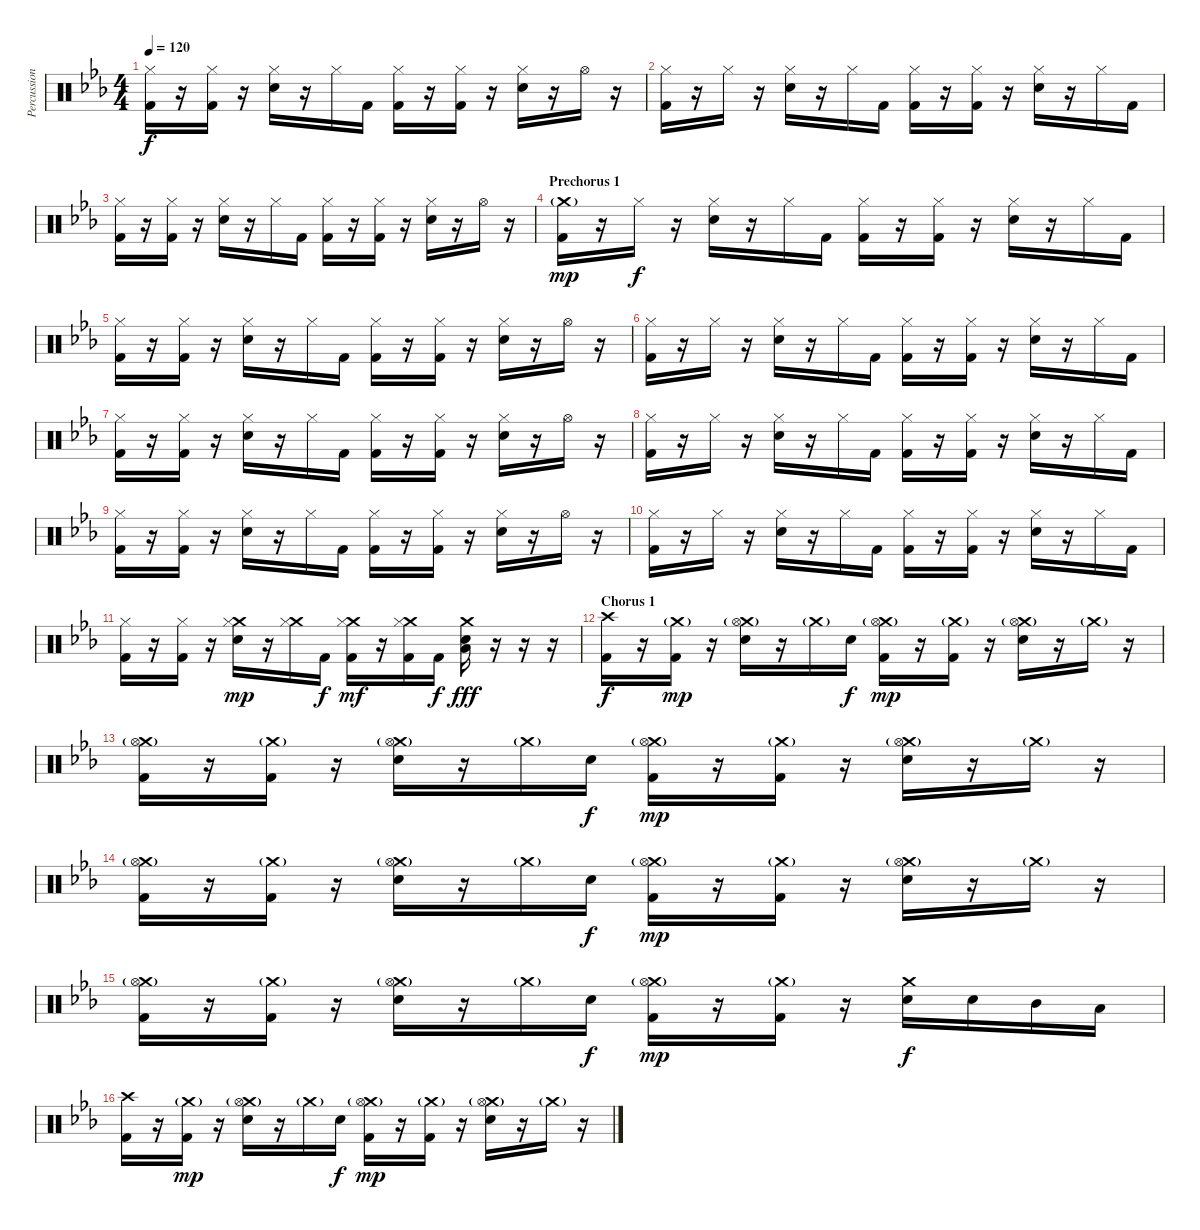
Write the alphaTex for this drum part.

\track ("Percussion" "Percussion") {instrument percussion}
\staff {score}
\articulation defaults
\ts (4 4)
\tempo 120
\clef neutral
\ks eb
("Hi-Hat (closed)" "Kick (hit) 2").16{dy f} r.16 ("Hi-Hat (closed)" "Kick (hit) 2").16 r.16 ("Hi-Hat (closed)" "Electric Snare (hit)").16 r.16 "Hi-Hat (closed)".16 "Kick (hit) 2".16 ("Hi-Hat (closed)" "Kick (hit) 2").16 r.16 ("Hi-Hat (closed)" "Kick (hit) 2").16 r.16 ("Hi-Hat (closed)" "Electric Snare (hit)").16 r.16 "Hi-Hat (open)".16 r.16 |
("Hi-Hat (closed)" "Kick (hit) 2").16 r.16 "Hi-Hat (closed)".16 r.16 ("Hi-Hat (closed)" "Electric Snare (hit)").16 r.16 "Hi-Hat (closed)".16 "Kick (hit) 2".16 ("Hi-Hat (closed)" "Kick (hit) 2").16 r.16 ("Hi-Hat (closed)" "Kick (hit) 2").16 r.16 ("Hi-Hat (closed)" "Electric Snare (hit)").16 r.16 "Hi-Hat (closed)".16 "Kick (hit) 2".16 |
("Hi-Hat (closed)" "Kick (hit) 2").16 r.16 ("Hi-Hat (closed)" "Kick (hit) 2").16 r.16 ("Hi-Hat (closed)" "Electric Snare (hit)").16 r.16 "Hi-Hat (closed)".16 "Kick (hit) 2".16 ("Hi-Hat (closed)" "Kick (hit) 2").16 r.16 ("Hi-Hat (closed)" "Kick (hit) 2").16 r.16 ("Hi-Hat (closed)" "Electric Snare (hit)").16 r.16 "Hi-Hat (open)".16 r.16 |
\section ("" "Prechorus 1")
("Crash medium (hit)"{g} "Kick (hit) 2").16{dy mp} r.16 "Hi-Hat (closed)".16{dy f} r.16 ("Hi-Hat (closed)" "Electric Snare (hit)").16 r.16 "Hi-Hat (closed)".16 "Kick (hit) 2".16 ("Hi-Hat (closed)" "Kick (hit) 2").16 r.16 ("Hi-Hat (closed)" "Kick (hit) 2").16 r.16 ("Hi-Hat (closed)" "Electric Snare (hit)").16 r.16 "Hi-Hat (closed)".16 "Kick (hit) 2".16 |
("Hi-Hat (closed)" "Kick (hit) 2").16 r.16 ("Hi-Hat (closed)" "Kick (hit) 2").16 r.16 ("Hi-Hat (closed)" "Electric Snare (hit)").16 r.16 "Hi-Hat (closed)".16 "Kick (hit) 2".16 ("Hi-Hat (closed)" "Kick (hit) 2").16 r.16 ("Hi-Hat (closed)" "Kick (hit) 2").16 r.16 ("Hi-Hat (closed)" "Electric Snare (hit)").16 r.16 "Hi-Hat (open)".16 r.16 |
("Hi-Hat (closed)" "Kick (hit) 2").16 r.16 "Hi-Hat (closed)".16 r.16 ("Hi-Hat (closed)" "Electric Snare (hit)").16 r.16 "Hi-Hat (closed)".16 "Kick (hit) 2".16 ("Hi-Hat (closed)" "Kick (hit) 2").16 r.16 ("Hi-Hat (closed)" "Kick (hit) 2").16 r.16 ("Hi-Hat (closed)" "Electric Snare (hit)").16 r.16 "Hi-Hat (closed)".16 "Kick (hit) 2".16 |
("Hi-Hat (closed)" "Kick (hit) 2").16 r.16 ("Hi-Hat (closed)" "Kick (hit) 2").16 r.16 ("Hi-Hat (closed)" "Electric Snare (hit)").16 r.16 "Hi-Hat (closed)".16 "Kick (hit) 2".16 ("Hi-Hat (closed)" "Kick (hit) 2").16 r.16 ("Hi-Hat (closed)" "Kick (hit) 2").16 r.16 ("Hi-Hat (closed)" "Electric Snare (hit)").16 r.16 "Hi-Hat (open)".16 r.16 |
("Hi-Hat (closed)" "Kick (hit) 2").16 r.16 "Hi-Hat (closed)".16 r.16 ("Hi-Hat (closed)" "Electric Snare (hit)").16 r.16 "Hi-Hat (closed)".16 "Kick (hit) 2".16 ("Hi-Hat (closed)" "Kick (hit) 2").16 r.16 ("Hi-Hat (closed)" "Kick (hit) 2").16 r.16 ("Hi-Hat (closed)" "Electric Snare (hit)").16 r.16 "Hi-Hat (closed)".16 "Kick (hit) 2".16 |
("Hi-Hat (closed)" "Kick (hit) 2").16 r.16 ("Hi-Hat (closed)" "Kick (hit) 2").16 r.16 ("Hi-Hat (closed)" "Electric Snare (hit)").16 r.16 "Hi-Hat (closed)".16 "Kick (hit) 2".16 ("Hi-Hat (closed)" "Kick (hit) 2").16 r.16 ("Hi-Hat (closed)" "Kick (hit) 2").16 r.16 ("Hi-Hat (closed)" "Electric Snare (hit)").16 r.16 "Hi-Hat (open)".16 r.16 |
("Hi-Hat (closed)" "Kick (hit) 2").16 r.16 "Hi-Hat (closed)".16 r.16 ("Hi-Hat (closed)" "Electric Snare (hit)").16 r.16 "Hi-Hat (closed)".16 "Kick (hit) 2".16 ("Hi-Hat (closed)" "Kick (hit) 2").16 r.16 ("Hi-Hat (closed)" "Kick (hit) 2").16 r.16 ("Hi-Hat (closed)" "Electric Snare (hit)").16 r.16 "Hi-Hat (closed)".16 "Kick (hit) 2".16 |
("Hi-Hat (closed)" "Kick (hit) 2").16 r.16 ("Hi-Hat (closed)" "Kick (hit) 2").16 r.16 ("Crash medium (hit)" "Hi-Hat (closed)" "Electric Snare (hit)").16{dy mp} r.16 ("Crash medium (hit)" "Hi-Hat (closed)").16 "Kick (hit) 2".16{dy f} ("Crash medium (hit)" "Hi-Hat (closed)" "Kick (hit) 2").16{dy mf} r.16 ("Crash medium (hit)" "Hi-Hat (closed)" "Kick (hit) 2").16 "Kick (hit) 2".16{dy f} ("Crash medium (hit)" "Electric Snare (hit)" "Low Floor Tom (hit)").16{dy fff} r.16 r.16 r.16 |
\section ("" "Chorus 1")
("Crash high (hit)" "Kick (hit) 2").16{dy f} r.16 ("Crash medium (hit)"{g} "Kick (hit) 2").16{dy mp} r.16 ("Crash medium (hit)"{g} "Hi-Hat (open)" "Electric Snare (hit)").16 r.16 "Crash medium (hit)"{g}.16 "Electric Snare (hit)".16{dy f} ("Crash medium (hit)"{g} "Hi-Hat (open)" "Kick (hit) 2").16{dy mp} r.16 ("Crash medium (hit)"{g} "Kick (hit) 2").16 r.16 ("Crash medium (hit)"{g} "Hi-Hat (open)" "Electric Snare (hit)").16 r.16 "Crash medium (hit)"{g}.16 r.16 |
("Crash medium (hit)"{g} "Hi-Hat (open)" "Kick (hit) 2").16 r.16 ("Crash medium (hit)"{g} "Kick (hit) 2").16 r.16 ("Crash medium (hit)"{g} "Hi-Hat (open)" "Electric Snare (hit)").16 r.16 "Crash medium (hit)"{g}.16 "Electric Snare (hit)".16{dy f} ("Crash medium (hit)"{g} "Hi-Hat (open)" "Kick (hit) 2").16{dy mp} r.16 ("Crash medium (hit)"{g} "Kick (hit) 2").16 r.16 ("Crash medium (hit)"{g} "Hi-Hat (open)" "Electric Snare (hit)").16 r.16 "Crash medium (hit)"{g}.16 r.16 |
("Crash medium (hit)"{g} "Hi-Hat (open)" "Kick (hit) 2").16 r.16 ("Crash medium (hit)"{g} "Kick (hit) 2").16 r.16 ("Crash medium (hit)"{g} "Hi-Hat (open)" "Electric Snare (hit)").16 r.16 "Crash medium (hit)"{g}.16 "Electric Snare (hit)".16{dy f} ("Crash medium (hit)"{g} "Hi-Hat (open)" "Kick (hit) 2").16{dy mp} r.16 ("Crash medium (hit)"{g} "Kick (hit) 2").16 r.16 ("Crash medium (hit)"{g} "Hi-Hat (open)" "Electric Snare (hit)").16 r.16 "Crash medium (hit)"{g}.16 r.16 |
("Crash medium (hit)"{g} "Hi-Hat (open)" "Kick (hit) 2").16 r.16 ("Crash medium (hit)"{g} "Kick (hit) 2").16 r.16 ("Crash medium (hit)"{g} "Hi-Hat (open)" "Electric Snare (hit)").16 r.16 "Crash medium (hit)"{g}.16 "Electric Snare (hit)".16{dy f} ("Crash medium (hit)"{g} "Hi-Hat (open)" "Kick (hit) 2").16{dy mp} r.16 ("Crash medium (hit)"{g} "Kick (hit) 2").16 r.16 ("Crash medium (hit)" "Electric Snare (hit)").16{dy f} "Electric Snare (hit)".16 "Mid Tom (hit)".16 "Low Tom (hit)".16 |
("Crash high (hit)" "Kick (hit) 2").16 r.16 ("Crash medium (hit)"{g} "Kick (hit) 2").16{dy mp} r.16 ("Crash medium (hit)"{g} "Hi-Hat (open)" "Electric Snare (hit)").16 r.16 "Crash medium (hit)"{g}.16 "Electric Snare (hit)".16{dy f} ("Crash medium (hit)"{g} "Hi-Hat (open)" "Kick (hit) 2").16{dy mp} r.16 ("Crash medium (hit)"{g} "Kick (hit) 2").16 r.16 ("Crash medium (hit)"{g} "Hi-Hat (open)" "Electric Snare (hit)").16 r.16 "Crash medium (hit)"{g}.16 r.16
